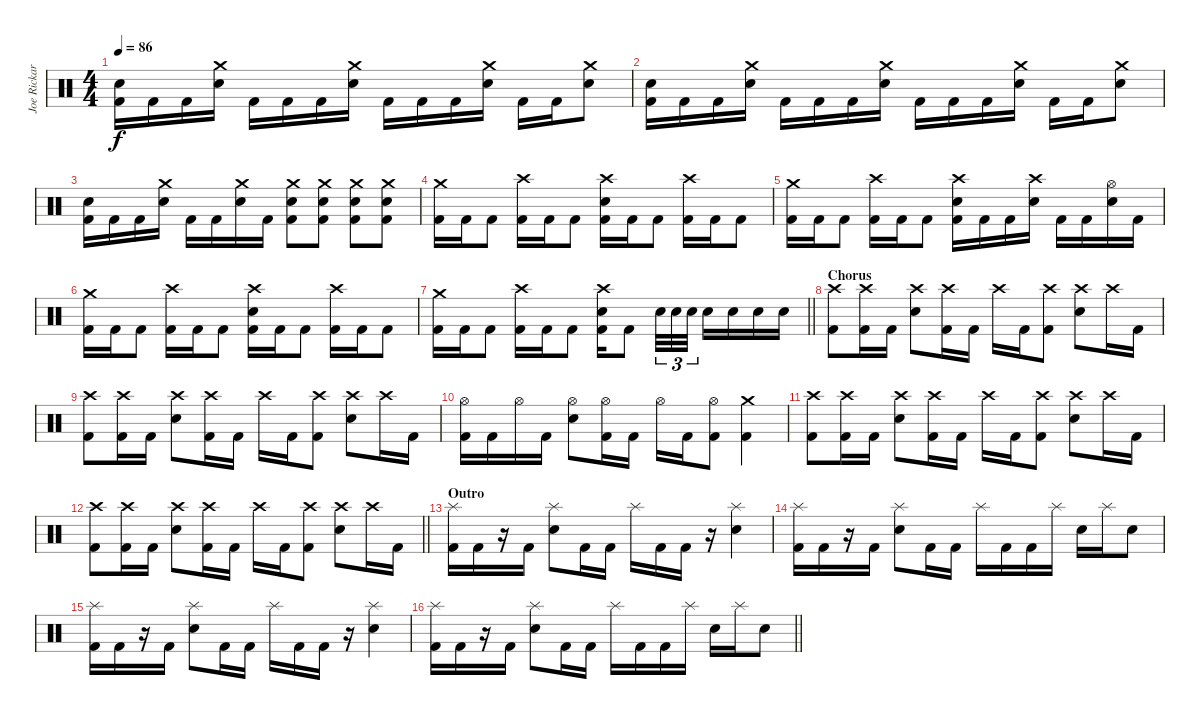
\track ("Joe Rickard" "Joe Rickar") {instrument percussion}
\staff {score}
\articulation defaults
\ts (4 4)
\tempo 86
\clef neutral
\ks c
("Electric Snare (hit)" "Kick (hit) 2").16{dy f} "Kick (hit) 2".16 "Kick (hit) 2".16 ("Crash medium (hit)" "Electric Snare (hit)").16 "Kick (hit) 2".16 "Kick (hit) 2".16 "Kick (hit) 2".16 ("Crash medium (hit)" "Electric Snare (hit)").16 "Kick (hit) 2".16 "Kick (hit) 2".16 "Kick (hit) 2".16 ("Crash medium (hit)" "Electric Snare (hit)").16 "Kick (hit) 2".16 "Kick (hit) 2".16 ("Crash medium (hit)" "Electric Snare (hit)").8 |
("Electric Snare (hit)" "Kick (hit) 2").16 "Kick (hit) 2".16 "Kick (hit) 2".16 ("Crash medium (hit)" "Electric Snare (hit)").16 "Kick (hit) 2".16 "Kick (hit) 2".16 "Kick (hit) 2".16 ("Crash medium (hit)" "Electric Snare (hit)").16 "Kick (hit) 2".16 "Kick (hit) 2".16 "Kick (hit) 2".16 ("Crash medium (hit)" "Electric Snare (hit)").16 "Kick (hit) 2".16 "Kick (hit) 2".16 ("Crash medium (hit)" "Electric Snare (hit)").8 |
("Electric Snare (hit)" "Kick (hit) 2").16 "Kick (hit) 2".16 "Kick (hit) 2".16 ("Crash medium (hit)" "Electric Snare (hit)").16 "Kick (hit) 2".16 "Kick (hit) 2".16 ("Crash medium (hit)" "Electric Snare (hit)").16 "Kick (hit) 2".16 ("Crash medium (hit)" "Electric Snare (hit)" "Kick (hit) 2").8 ("Crash medium (hit)" "Electric Snare (hit)" "Kick (hit) 2").8 ("Crash medium (hit)" "Electric Snare (hit)" "Kick (hit) 2").8 ("Crash medium (hit)" "Electric Snare (hit)" "Kick (hit) 2").8 |
("Crash medium (hit)" "Kick (hit) 2").16 "Kick (hit) 2".16 "Kick (hit) 2".8 ("Crash high (hit)" "Kick (hit) 2").16 "Kick (hit) 2".16 "Kick (hit) 2".8 ("Crash high (hit)" "Electric Snare (hit)" "Kick (hit) 2").16 "Kick (hit) 2".16 "Kick (hit) 2".8 ("Crash high (hit)" "Kick (hit) 2").16 "Kick (hit) 2".16 "Kick (hit) 2".8 |
("Crash medium (hit)" "Kick (hit) 2").16 "Kick (hit) 2".16 "Kick (hit) 2".8 ("Crash high (hit)" "Kick (hit) 2").16 "Kick (hit) 2".16 "Kick (hit) 2".8 ("Crash high (hit)" "Electric Snare (hit)" "Kick (hit) 2").16 "Kick (hit) 2".16 "Kick (hit) 2".16 ("Crash high (hit)" "Electric Snare (hit)").16 "Kick (hit) 2".16 "Kick (hit) 2".16 ("Hi-Hat (open)" "Electric Snare (hit)").16 "Kick (hit) 2".16 |
("Crash medium (hit)" "Kick (hit) 2").16 "Kick (hit) 2".16 "Kick (hit) 2".8 ("Crash high (hit)" "Kick (hit) 2").16 "Kick (hit) 2".16 "Kick (hit) 2".8 ("Crash high (hit)" "Electric Snare (hit)" "Kick (hit) 2").16 "Kick (hit) 2".16 "Kick (hit) 2".8 ("Crash high (hit)" "Kick (hit) 2").16 "Kick (hit) 2".16 "Kick (hit) 2".8 |
\barLineRight lightlight
("Crash medium (hit)" "Kick (hit) 2").16 "Kick (hit) 2".16 "Kick (hit) 2".8 ("Crash high (hit)" "Kick (hit) 2").16 "Kick (hit) 2".16 "Kick (hit) 2".8 ("Crash high (hit)" "Electric Snare (hit)" "Kick (hit) 2").16 "Kick (hit) 2".8 "Electric Snare (hit)".32{tu (3 2)} "Electric Snare (hit)".32{tu (3 2)} "Electric Snare (hit)".32{tu (3 2)} "Electric Snare (hit)".16 "Electric Snare (hit)".16 "Electric Snare (hit)".16 "Electric Snare (hit)".16 |
\section ("" "Chorus")
("Crash high (hit)" "Kick (hit) 2").8 ("Crash high (hit)" "Kick (hit) 2").16 "Kick (hit) 2".16 ("Crash high (hit)" "Electric Snare (hit)").8 ("Crash high (hit)" "Kick (hit) 2").16 "Kick (hit) 2".16 "Crash high (hit)".16 "Kick (hit) 2".16 ("Crash high (hit)" "Kick (hit) 2").8 ("Crash high (hit)" "Electric Snare (hit)").8 "Crash high (hit)".16 "Kick (hit) 2".16 |
("Crash high (hit)" "Kick (hit) 2").8 ("Crash high (hit)" "Kick (hit) 2").16 "Kick (hit) 2".16 ("Crash high (hit)" "Electric Snare (hit)").8 ("Crash high (hit)" "Kick (hit) 2").16 "Kick (hit) 2".16 "Crash high (hit)".16 "Kick (hit) 2".16 ("Crash high (hit)" "Kick (hit) 2").8 ("Crash high (hit)" "Electric Snare (hit)").8 "Crash high (hit)".16 "Kick (hit) 2".16 |
("Hi-Hat (open)" "Kick (hit) 2").16 "Kick (hit) 2".16 "Hi-Hat (open)".16 "Kick (hit) 2".16 ("Hi-Hat (open)" "Electric Snare (hit)").8 ("Hi-Hat (open)" "Kick (hit) 2").16 "Kick (hit) 2".16 "Hi-Hat (open)".16 "Kick (hit) 2".16 ("Hi-Hat (open)" "Kick (hit) 2").8 ("Crash medium (hit)" "Kick (hit) 2").4 |
("Crash high (hit)" "Kick (hit) 2").8 ("Crash high (hit)" "Kick (hit) 2").16 "Kick (hit) 2".16 ("Crash high (hit)" "Electric Snare (hit)").8 ("Crash high (hit)" "Kick (hit) 2").16 "Kick (hit) 2".16 "Crash high (hit)".16 "Kick (hit) 2".16 ("Crash high (hit)" "Kick (hit) 2").8 ("Crash high (hit)" "Electric Snare (hit)").8 "Crash high (hit)".16 "Kick (hit) 2".16 |
\barLineRight lightlight
("Crash high (hit)" "Kick (hit) 2").8 ("Crash high (hit)" "Kick (hit) 2").16 "Kick (hit) 2".16 ("Crash high (hit)" "Electric Snare (hit)").8 ("Crash high (hit)" "Kick (hit) 2").16 "Kick (hit) 2".16 "Crash high (hit)".16 "Kick (hit) 2".16 ("Crash high (hit)" "Kick (hit) 2").8 ("Crash high (hit)" "Electric Snare (hit)").8 "Crash high (hit)".16 "Kick (hit) 2".16 |
\section ("" "Outro")
("Splash (hit)" "Kick (hit) 2").16 "Kick (hit) 2".16 r.16 "Kick (hit) 2".16 ("Splash (hit)" "Electric Snare (hit)").8 "Kick (hit) 2".16 "Kick (hit) 2".16 "Splash (hit)".16 "Kick (hit) 2".16 "Kick (hit) 2".16 r.16 ("Splash (hit)" "Electric Snare (hit)").4 |
("Splash (hit)" "Kick (hit) 2").16 "Kick (hit) 2".16 r.16 "Kick (hit) 2".16 ("Splash (hit)" "Electric Snare (hit)").8 "Kick (hit) 2".16 "Kick (hit) 2".16 "Splash (hit)".16 "Kick (hit) 2".16 "Kick (hit) 2".16 "Splash (hit)".16 "Electric Snare (hit)".16 "Splash (hit)".16 "Electric Snare (hit)".8 |
("Splash (hit)" "Kick (hit) 2").16 "Kick (hit) 2".16 r.16 "Kick (hit) 2".16 ("Splash (hit)" "Electric Snare (hit)").8 "Kick (hit) 2".16 "Kick (hit) 2".16 "Splash (hit)".16 "Kick (hit) 2".16 "Kick (hit) 2".16 r.16 ("Splash (hit)" "Electric Snare (hit)").4 |
\barLineRight lightlight
("Splash (hit)" "Kick (hit) 2").16 "Kick (hit) 2".16 r.16 "Kick (hit) 2".16 ("Splash (hit)" "Electric Snare (hit)").8 "Kick (hit) 2".16 "Kick (hit) 2".16 "Splash (hit)".16 "Kick (hit) 2".16 "Kick (hit) 2".16 "Splash (hit)".16 "Electric Snare (hit)".16 "Splash (hit)".16 "Electric Snare (hit)".8
